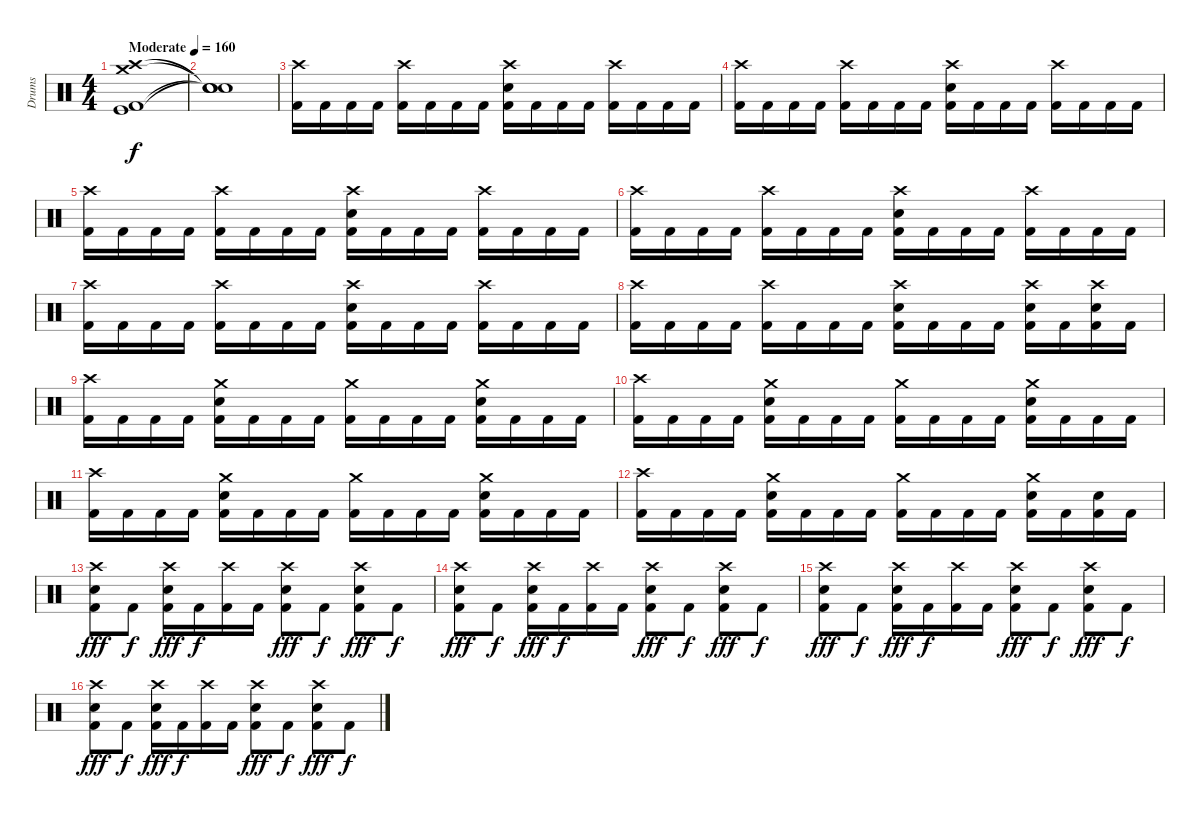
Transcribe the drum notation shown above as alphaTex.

\track ("Drums" "Drums") {instrument percussion}
\staff {score}
\articulation defaults
\ts (4 4)
\tempo (160 "Moderate")
\clef neutral
\ks c
("Crash medium (hit)" "Crash high (hit)" "Kick (hit)" "Kick (hit) 2").1{dy f} |
("Snare (hit)"{t} "Snare (hit)"{t} "Snare (hit)"{t} "Snare (hit)"{t}).1 |
("Crash high (hit)" "Kick (hit) 2").16 "Kick (hit) 2".16 "Kick (hit) 2".16 "Kick (hit) 2".16 ("Crash high (hit)" "Kick (hit) 2").16 "Kick (hit) 2".16 "Kick (hit) 2".16 "Kick (hit) 2".16 ("Crash high (hit)" "Snare (hit) 2" "Kick (hit) 2").16 "Kick (hit) 2".16 "Kick (hit) 2".16 "Kick (hit) 2".16 ("Crash high (hit)" "Kick (hit) 2").16 "Kick (hit) 2".16 "Kick (hit) 2".16 "Kick (hit) 2".16 |
("Crash high (hit)" "Kick (hit) 2").16 "Kick (hit) 2".16 "Kick (hit) 2".16 "Kick (hit) 2".16 ("Crash high (hit)" "Kick (hit) 2").16 "Kick (hit) 2".16 "Kick (hit) 2".16 "Kick (hit) 2".16 ("Crash high (hit)" "Snare (hit) 2" "Kick (hit) 2").16 "Kick (hit) 2".16 "Kick (hit) 2".16 "Kick (hit) 2".16 ("Crash high (hit)" "Kick (hit) 2").16 "Kick (hit) 2".16 "Kick (hit) 2".16 "Kick (hit) 2".16 |
("Crash high (hit)" "Kick (hit) 2").16 "Kick (hit) 2".16 "Kick (hit) 2".16 "Kick (hit) 2".16 ("Crash high (hit)" "Kick (hit) 2").16 "Kick (hit) 2".16 "Kick (hit) 2".16 "Kick (hit) 2".16 ("Crash high (hit)" "Snare (hit) 2" "Kick (hit) 2").16 "Kick (hit) 2".16 "Kick (hit) 2".16 "Kick (hit) 2".16 ("Crash high (hit)" "Kick (hit) 2").16 "Kick (hit) 2".16 "Kick (hit) 2".16 "Kick (hit) 2".16 |
("Crash high (hit)" "Kick (hit) 2").16 "Kick (hit) 2".16 "Kick (hit) 2".16 "Kick (hit) 2".16 ("Crash high (hit)" "Kick (hit) 2").16 "Kick (hit) 2".16 "Kick (hit) 2".16 "Kick (hit) 2".16 ("Crash high (hit)" "Snare (hit) 2" "Kick (hit) 2").16 "Kick (hit) 2".16 "Kick (hit) 2".16 "Kick (hit) 2".16 ("Crash high (hit)" "Kick (hit) 2").16 "Kick (hit) 2".16 "Kick (hit) 2".16 "Kick (hit) 2".16 |
("Crash high (hit)" "Kick (hit) 2").16 "Kick (hit) 2".16 "Kick (hit) 2".16 "Kick (hit) 2".16 ("Crash high (hit)" "Kick (hit) 2").16 "Kick (hit) 2".16 "Kick (hit) 2".16 "Kick (hit) 2".16 ("Crash high (hit)" "Snare (hit) 2" "Kick (hit) 2").16 "Kick (hit) 2".16 "Kick (hit) 2".16 "Kick (hit) 2".16 ("Crash high (hit)" "Kick (hit) 2").16 "Kick (hit) 2".16 "Kick (hit) 2".16 "Kick (hit) 2".16 |
("Crash high (hit)" "Kick (hit) 2").16 "Kick (hit) 2".16 "Kick (hit) 2".16 "Kick (hit) 2".16 ("Crash high (hit)" "Kick (hit) 2").16 "Kick (hit) 2".16 "Kick (hit) 2".16 "Kick (hit) 2".16 ("Crash high (hit)" "Snare (hit) 2" "Kick (hit) 2").16 "Kick (hit) 2".16 "Kick (hit) 2".16 "Kick (hit) 2".16 ("Crash high (hit)" "Snare (hit) 2" "Kick (hit) 2").16 "Kick (hit) 2".16 ("Crash high (hit)" "Snare (hit) 2" "Kick (hit) 2").16 "Kick (hit) 2".16 |
("Crash high (hit)" "Kick (hit) 2").16 "Kick (hit) 2".16 "Kick (hit) 2".16 "Kick (hit) 2".16 ("Crash medium (hit)" "Snare (hit) 2" "Kick (hit) 2").16 "Kick (hit) 2".16 "Kick (hit) 2".16 "Kick (hit) 2".16 ("Crash medium (hit)" "Kick (hit) 2").16 "Kick (hit) 2".16 "Kick (hit) 2".16 "Kick (hit) 2".16 ("Crash medium (hit)" "Snare (hit) 2" "Kick (hit) 2").16 "Kick (hit) 2".16 "Kick (hit) 2".16 "Kick (hit) 2".16 |
("Crash high (hit)" "Kick (hit) 2").16 "Kick (hit) 2".16 "Kick (hit) 2".16 "Kick (hit) 2".16 ("Crash medium (hit)" "Snare (hit) 2" "Kick (hit) 2").16 "Kick (hit) 2".16 "Kick (hit) 2".16 "Kick (hit) 2".16 ("Crash medium (hit)" "Kick (hit) 2").16 "Kick (hit) 2".16 "Kick (hit) 2".16 "Kick (hit) 2".16 ("Crash medium (hit)" "Snare (hit) 2" "Kick (hit) 2").16 "Kick (hit) 2".16 "Kick (hit) 2".16 "Kick (hit) 2".16 |
("Crash high (hit)" "Kick (hit) 2").16 "Kick (hit) 2".16 "Kick (hit) 2".16 "Kick (hit) 2".16 ("Crash medium (hit)" "Snare (hit) 2" "Kick (hit) 2").16 "Kick (hit) 2".16 "Kick (hit) 2".16 "Kick (hit) 2".16 ("Crash medium (hit)" "Kick (hit) 2").16 "Kick (hit) 2".16 "Kick (hit) 2".16 "Kick (hit) 2".16 ("Crash medium (hit)" "Snare (hit) 2" "Kick (hit) 2").16 "Kick (hit) 2".16 "Kick (hit) 2".16 "Kick (hit) 2".16 |
("Crash high (hit)" "Kick (hit) 2").16 "Kick (hit) 2".16 "Kick (hit) 2".16 "Kick (hit) 2".16 ("Crash medium (hit)" "Snare (hit) 2" "Kick (hit) 2").16 "Kick (hit) 2".16 "Kick (hit) 2".16 "Kick (hit) 2".16 ("Crash medium (hit)" "Kick (hit) 2").16 "Kick (hit) 2".16 "Kick (hit) 2".16 "Kick (hit) 2".16 ("Crash medium (hit)" "Snare (hit) 2" "Kick (hit) 2").16 "Kick (hit) 2".16 ("Snare (hit) 2" "Kick (hit) 2").16 "Kick (hit) 2".16 |
("Crash high (hit)" "Kick (hit) 2" "Snare (hit) 2").8{dy fff} "Kick (hit) 2".8{dy f} ("Crash high (hit)" "Kick (hit) 2" "Snare (hit) 2").16{dy fff} "Kick (hit) 2".16{dy f} ("Crash high (hit)" "Kick (hit) 2").16 "Kick (hit) 2".16 ("Crash high (hit)" "Kick (hit) 2" "Snare (hit) 2").8{dy fff} "Kick (hit) 2".8{dy f} ("Crash high (hit)" "Kick (hit) 2" "Snare (hit) 2").8{dy fff} "Kick (hit) 2".8{dy f} |
("Crash high (hit)" "Kick (hit) 2" "Snare (hit) 2").8{dy fff} "Kick (hit) 2".8{dy f} ("Crash high (hit)" "Kick (hit) 2" "Snare (hit) 2").16{dy fff} "Kick (hit) 2".16{dy f} ("Crash high (hit)" "Kick (hit) 2").16 "Kick (hit) 2".16 ("Crash high (hit)" "Kick (hit) 2" "Snare (hit) 2").8{dy fff} "Kick (hit) 2".8{dy f} ("Crash high (hit)" "Kick (hit) 2" "Snare (hit) 2").8{dy fff} "Kick (hit) 2".8{dy f} |
("Crash high (hit)" "Kick (hit) 2" "Snare (hit) 2").8{dy fff} "Kick (hit) 2".8{dy f} ("Crash high (hit)" "Kick (hit) 2" "Snare (hit) 2").16{dy fff} "Kick (hit) 2".16{dy f} ("Crash high (hit)" "Kick (hit) 2").16 "Kick (hit) 2".16 ("Crash high (hit)" "Kick (hit) 2" "Snare (hit) 2").8{dy fff} "Kick (hit) 2".8{dy f} ("Crash high (hit)" "Kick (hit) 2" "Snare (hit) 2").8{dy fff} "Kick (hit) 2".8{dy f} |
("Crash high (hit)" "Kick (hit) 2" "Snare (hit) 2").8{dy fff} "Kick (hit) 2".8{dy f} ("Crash high (hit)" "Kick (hit) 2" "Snare (hit) 2").16{dy fff} "Kick (hit) 2".16{dy f} ("Crash high (hit)" "Kick (hit) 2").16 "Kick (hit) 2".16 ("Crash high (hit)" "Kick (hit) 2" "Snare (hit) 2").8{dy fff} "Kick (hit) 2".8{dy f} ("Crash high (hit)" "Kick (hit) 2" "Snare (hit) 2").8{dy fff} "Kick (hit) 2".8{dy f}
